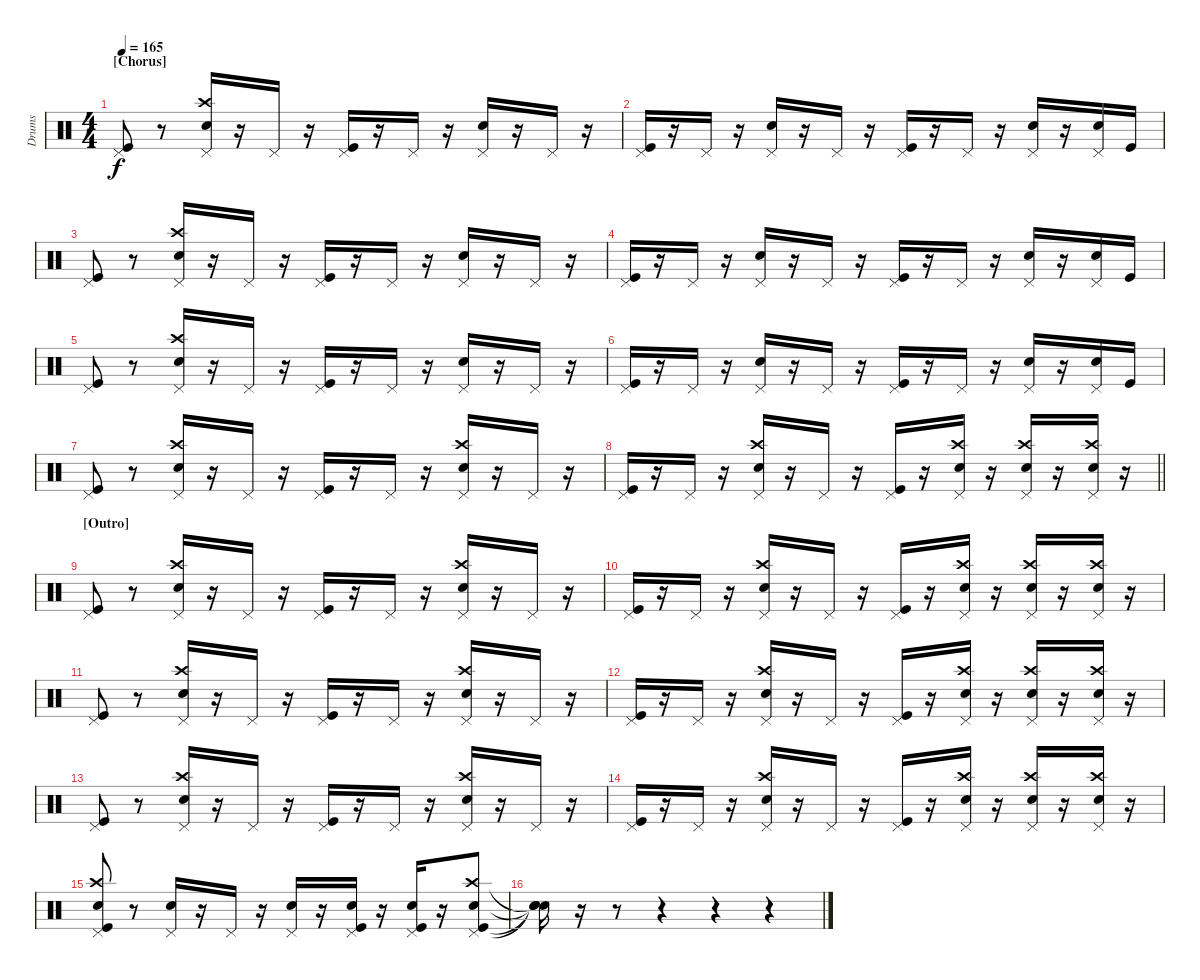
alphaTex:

\track ("Drums" "Drums") {instrument percussion}
\staff {score}
\articulation defaults
\ts (4 4)
\section ("" "[Chorus]")
\tempo 165
\clef neutral
\ks c
("Pedal Hi-Hat (hit)" "Kick (hit)").8{dy f} r.8 ("Pedal Hi-Hat (hit)" "Crash high (hit)" "Snare (hit) 2").16 r.16 "Pedal Hi-Hat (hit)".16 r.16 ("Pedal Hi-Hat (hit)" "Kick (hit)").16 r.16 "Pedal Hi-Hat (hit)".16 r.16 ("Pedal Hi-Hat (hit)" "Snare (hit) 2").16 r.16 "Pedal Hi-Hat (hit)".16 r.16 |
("Pedal Hi-Hat (hit)" "Kick (hit)").16 r.16 "Pedal Hi-Hat (hit)".16 r.16 ("Pedal Hi-Hat (hit)" "Snare (hit) 2").16 r.16 "Pedal Hi-Hat (hit)".16 r.16 ("Pedal Hi-Hat (hit)" "Kick (hit)").16 r.16 "Pedal Hi-Hat (hit)".16 r.16 ("Pedal Hi-Hat (hit)" "Snare (hit) 2").16 r.16 ("Pedal Hi-Hat (hit)" "Snare (hit) 2").16 "Kick (hit)".16 |
("Pedal Hi-Hat (hit)" "Kick (hit)").8 r.8 ("Pedal Hi-Hat (hit)" "Crash high (hit)" "Snare (hit) 2").16 r.16 "Pedal Hi-Hat (hit)".16 r.16 ("Pedal Hi-Hat (hit)" "Kick (hit)").16 r.16 "Pedal Hi-Hat (hit)".16 r.16 ("Pedal Hi-Hat (hit)" "Snare (hit) 2").16 r.16 "Pedal Hi-Hat (hit)".16 r.16 |
("Pedal Hi-Hat (hit)" "Kick (hit)").16 r.16 "Pedal Hi-Hat (hit)".16 r.16 ("Pedal Hi-Hat (hit)" "Snare (hit) 2").16 r.16 "Pedal Hi-Hat (hit)".16 r.16 ("Pedal Hi-Hat (hit)" "Kick (hit)").16 r.16 "Pedal Hi-Hat (hit)".16 r.16 ("Pedal Hi-Hat (hit)" "Snare (hit) 2").16 r.16 ("Pedal Hi-Hat (hit)" "Snare (hit) 2").16 "Kick (hit)".16 |
("Pedal Hi-Hat (hit)" "Kick (hit)").8 r.8 ("Pedal Hi-Hat (hit)" "Crash high (hit)" "Snare (hit) 2").16 r.16 "Pedal Hi-Hat (hit)".16 r.16 ("Pedal Hi-Hat (hit)" "Kick (hit)").16 r.16 "Pedal Hi-Hat (hit)".16 r.16 ("Pedal Hi-Hat (hit)" "Snare (hit) 2").16 r.16 "Pedal Hi-Hat (hit)".16 r.16 |
("Pedal Hi-Hat (hit)" "Kick (hit)").16 r.16 "Pedal Hi-Hat (hit)".16 r.16 ("Pedal Hi-Hat (hit)" "Snare (hit) 2").16 r.16 "Pedal Hi-Hat (hit)".16 r.16 ("Pedal Hi-Hat (hit)" "Kick (hit)").16 r.16 "Pedal Hi-Hat (hit)".16 r.16 ("Pedal Hi-Hat (hit)" "Snare (hit) 2").16 r.16 ("Pedal Hi-Hat (hit)" "Snare (hit) 2").16 "Kick (hit)".16 |
("Pedal Hi-Hat (hit)" "Kick (hit)").8 r.8 ("Pedal Hi-Hat (hit)" "Crash high (hit)" "Snare (hit) 2").16 r.16 "Pedal Hi-Hat (hit)".16 r.16 ("Pedal Hi-Hat (hit)" "Kick (hit)").16 r.16 "Pedal Hi-Hat (hit)".16 r.16 ("Pedal Hi-Hat (hit)" "Crash high (hit)" "Snare (hit) 2").16 r.16 "Pedal Hi-Hat (hit)".16 r.16 |
\barLineRight lightlight
("Pedal Hi-Hat (hit)" "Kick (hit)").16 r.16 "Pedal Hi-Hat (hit)".16 r.16 ("Pedal Hi-Hat (hit)" "Crash high (hit)" "Snare (hit) 2").16 r.16 "Pedal Hi-Hat (hit)".16 r.16 ("Pedal Hi-Hat (hit)" "Kick (hit)").16 r.16 ("Pedal Hi-Hat (hit)" "Crash high (hit)" "Snare (hit) 2").16 r.16 ("Pedal Hi-Hat (hit)" "Crash high (hit)" "Snare (hit) 2").16 r.16 ("Pedal Hi-Hat (hit)" "Crash high (hit)" "Snare (hit) 2").16 r.16 |
\section ("" "[Outro]")
("Pedal Hi-Hat (hit)" "Kick (hit)").8 r.8 ("Pedal Hi-Hat (hit)" "Crash high (hit)" "Snare (hit) 2").16 r.16 "Pedal Hi-Hat (hit)".16 r.16 ("Pedal Hi-Hat (hit)" "Kick (hit)").16 r.16 "Pedal Hi-Hat (hit)".16 r.16 ("Pedal Hi-Hat (hit)" "Crash high (hit)" "Snare (hit) 2").16 r.16 "Pedal Hi-Hat (hit)".16 r.16 |
("Pedal Hi-Hat (hit)" "Kick (hit)").16 r.16 "Pedal Hi-Hat (hit)".16 r.16 ("Pedal Hi-Hat (hit)" "Crash high (hit)" "Snare (hit) 2").16 r.16 "Pedal Hi-Hat (hit)".16 r.16 ("Pedal Hi-Hat (hit)" "Kick (hit)").16 r.16 ("Pedal Hi-Hat (hit)" "Crash high (hit)" "Snare (hit) 2").16 r.16 ("Pedal Hi-Hat (hit)" "Crash high (hit)" "Snare (hit) 2").16 r.16 ("Pedal Hi-Hat (hit)" "Crash high (hit)" "Snare (hit) 2").16 r.16 |
("Pedal Hi-Hat (hit)" "Kick (hit)").8 r.8 ("Pedal Hi-Hat (hit)" "Crash high (hit)" "Snare (hit) 2").16 r.16 "Pedal Hi-Hat (hit)".16 r.16 ("Pedal Hi-Hat (hit)" "Kick (hit)").16 r.16 "Pedal Hi-Hat (hit)".16 r.16 ("Pedal Hi-Hat (hit)" "Crash high (hit)" "Snare (hit) 2").16 r.16 "Pedal Hi-Hat (hit)".16 r.16 |
("Pedal Hi-Hat (hit)" "Kick (hit)").16 r.16 "Pedal Hi-Hat (hit)".16 r.16 ("Pedal Hi-Hat (hit)" "Crash high (hit)" "Snare (hit) 2").16 r.16 "Pedal Hi-Hat (hit)".16 r.16 ("Pedal Hi-Hat (hit)" "Kick (hit)").16 r.16 ("Pedal Hi-Hat (hit)" "Crash high (hit)" "Snare (hit) 2").16 r.16 ("Pedal Hi-Hat (hit)" "Crash high (hit)" "Snare (hit) 2").16 r.16 ("Pedal Hi-Hat (hit)" "Crash high (hit)" "Snare (hit) 2").16 r.16 |
("Pedal Hi-Hat (hit)" "Kick (hit)").8 r.8 ("Pedal Hi-Hat (hit)" "Crash high (hit)" "Snare (hit) 2").16 r.16 "Pedal Hi-Hat (hit)".16 r.16 ("Pedal Hi-Hat (hit)" "Kick (hit)").16 r.16 "Pedal Hi-Hat (hit)".16 r.16 ("Pedal Hi-Hat (hit)" "Crash high (hit)" "Snare (hit) 2").16 r.16 "Pedal Hi-Hat (hit)".16 r.16 |
("Pedal Hi-Hat (hit)" "Kick (hit)").16 r.16 "Pedal Hi-Hat (hit)".16 r.16 ("Pedal Hi-Hat (hit)" "Crash high (hit)" "Snare (hit) 2").16 r.16 "Pedal Hi-Hat (hit)".16 r.16 ("Pedal Hi-Hat (hit)" "Kick (hit)").16 r.16 ("Pedal Hi-Hat (hit)" "Crash high (hit)" "Snare (hit) 2").16 r.16 ("Pedal Hi-Hat (hit)" "Crash high (hit)" "Snare (hit) 2").16 r.16 ("Pedal Hi-Hat (hit)" "Crash high (hit)" "Snare (hit) 2").16 r.16 |
("Pedal Hi-Hat (hit)" "Crash high (hit)" "Snare (hit) 2" "Kick (hit)").8 r.8 ("Pedal Hi-Hat (hit)" "Snare (hit) 2").16 r.16 "Pedal Hi-Hat (hit)".16 r.16 ("Pedal Hi-Hat (hit)" "Snare (hit) 2").16 r.16 ("Pedal Hi-Hat (hit)" "Snare (hit) 2" "Kick (hit)").16 r.16 ("Pedal Hi-Hat (hit)" "Snare (hit) 2" "Kick (hit)").16 r.16 ("Pedal Hi-Hat (hit)" "Crash high (hit)" "Snare (hit) 2" "Kick (hit)").8 |
("Snare (hit)"{t} "Snare (hit)"{t} "Snare (hit)"{t} "Snare (hit)"{t}).16 r.16 r.8 r.4 r.4 r.4
